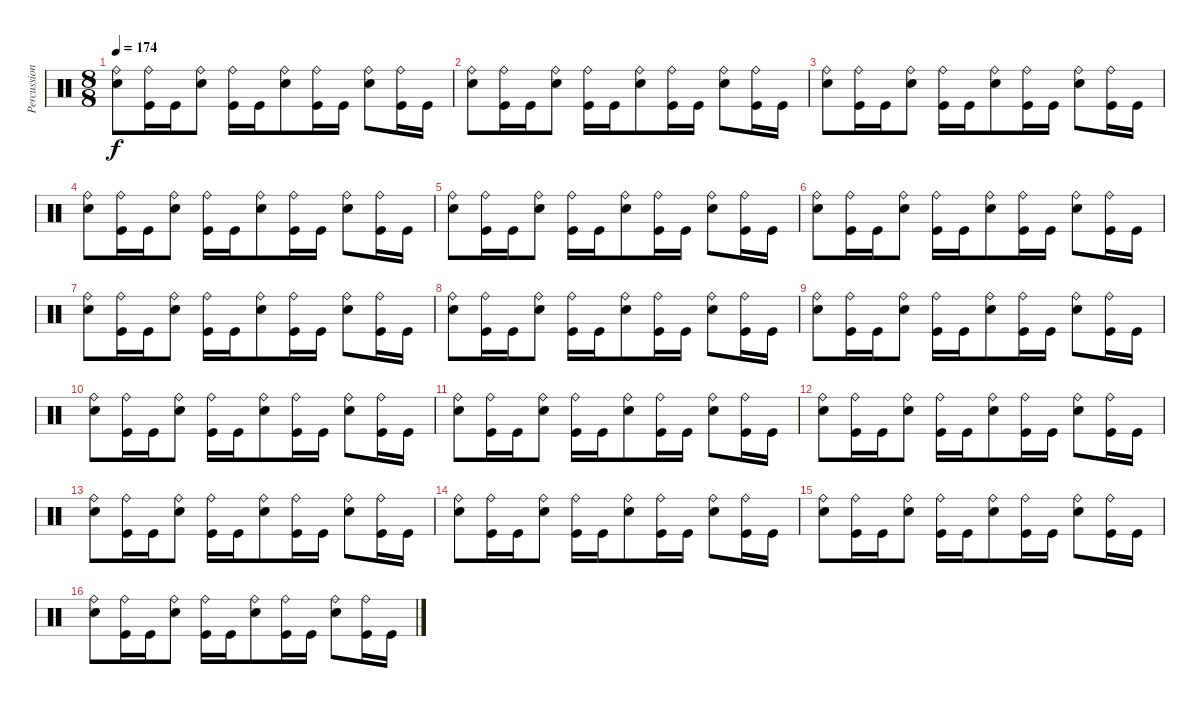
\track ("Percussions" "Percussion") {instrument percussion}
\staff {score}
\articulation defaults
\ts (8 8)
\tempo 174
\clef neutral
\ks c
("Electric Snare (hit)" "Ride (bell)").8{dy f} ("Kick (hit)" "Ride (bell)").16 "Kick (hit)".16 ("Electric Snare (hit)" "Ride (bell)").8 ("Kick (hit)" "Ride (bell)").16 "Kick (hit)".16 ("Electric Snare (hit)" "Ride (bell)").8 ("Kick (hit)" "Ride (bell)").16 "Kick (hit)".16 ("Electric Snare (hit)" "Ride (bell)").8 ("Kick (hit)" "Ride (bell)").16 "Kick (hit)".16 |
("Electric Snare (hit)" "Ride (bell)").8 ("Kick (hit)" "Ride (bell)").16 "Kick (hit)".16 ("Electric Snare (hit)" "Ride (bell)").8 ("Kick (hit)" "Ride (bell)").16 "Kick (hit)".16 ("Electric Snare (hit)" "Ride (bell)").8 ("Kick (hit)" "Ride (bell)").16 "Kick (hit)".16 ("Electric Snare (hit)" "Ride (bell)").8 ("Kick (hit)" "Ride (bell)").16 "Kick (hit)".16 |
("Electric Snare (hit)" "Ride (bell)").8 ("Kick (hit)" "Ride (bell)").16 "Kick (hit)".16 ("Electric Snare (hit)" "Ride (bell)").8 ("Kick (hit)" "Ride (bell)").16 "Kick (hit)".16 ("Electric Snare (hit)" "Ride (bell)").8 ("Kick (hit)" "Ride (bell)").16 "Kick (hit)".16 ("Electric Snare (hit)" "Ride (bell)").8 ("Kick (hit)" "Ride (bell)").16 "Kick (hit)".16 |
("Electric Snare (hit)" "Ride (bell)").8 ("Kick (hit)" "Ride (bell)").16 "Kick (hit)".16 ("Electric Snare (hit)" "Ride (bell)").8 ("Kick (hit)" "Ride (bell)").16 "Kick (hit)".16 ("Electric Snare (hit)" "Ride (bell)").8 ("Kick (hit)" "Ride (bell)").16 "Kick (hit)".16 ("Electric Snare (hit)" "Ride (bell)").8 ("Kick (hit)" "Ride (bell)").16 "Kick (hit)".16 |
("Electric Snare (hit)" "Ride (bell)").8 ("Kick (hit)" "Ride (bell)").16 "Kick (hit)".16 ("Electric Snare (hit)" "Ride (bell)").8 ("Kick (hit)" "Ride (bell)").16 "Kick (hit)".16 ("Electric Snare (hit)" "Ride (bell)").8 ("Kick (hit)" "Ride (bell)").16 "Kick (hit)".16 ("Electric Snare (hit)" "Ride (bell)").8 ("Kick (hit)" "Ride (bell)").16 "Kick (hit)".16 |
("Electric Snare (hit)" "Ride (bell)").8 ("Kick (hit)" "Ride (bell)").16 "Kick (hit)".16 ("Electric Snare (hit)" "Ride (bell)").8 ("Kick (hit)" "Ride (bell)").16 "Kick (hit)".16 ("Electric Snare (hit)" "Ride (bell)").8 ("Kick (hit)" "Ride (bell)").16 "Kick (hit)".16 ("Electric Snare (hit)" "Ride (bell)").8 ("Kick (hit)" "Ride (bell)").16 "Kick (hit)".16 |
("Electric Snare (hit)" "Ride (bell)").8 ("Kick (hit)" "Ride (bell)").16 "Kick (hit)".16 ("Electric Snare (hit)" "Ride (bell)").8 ("Kick (hit)" "Ride (bell)").16 "Kick (hit)".16 ("Electric Snare (hit)" "Ride (bell)").8 ("Kick (hit)" "Ride (bell)").16 "Kick (hit)".16 ("Electric Snare (hit)" "Ride (bell)").8 ("Kick (hit)" "Ride (bell)").16 "Kick (hit)".16 |
("Electric Snare (hit)" "Ride (bell)").8 ("Kick (hit)" "Ride (bell)").16 "Kick (hit)".16 ("Electric Snare (hit)" "Ride (bell)").8 ("Kick (hit)" "Ride (bell)").16 "Kick (hit)".16 ("Electric Snare (hit)" "Ride (bell)").8 ("Kick (hit)" "Ride (bell)").16 "Kick (hit)".16 ("Electric Snare (hit)" "Ride (bell)").8 ("Kick (hit)" "Ride (bell)").16 "Kick (hit)".16 |
("Electric Snare (hit)" "Ride (bell)").8 ("Kick (hit)" "Ride (bell)").16 "Kick (hit)".16 ("Electric Snare (hit)" "Ride (bell)").8 ("Kick (hit)" "Ride (bell)").16 "Kick (hit)".16 ("Electric Snare (hit)" "Ride (bell)").8 ("Kick (hit)" "Ride (bell)").16 "Kick (hit)".16 ("Electric Snare (hit)" "Ride (bell)").8 ("Kick (hit)" "Ride (bell)").16 "Kick (hit)".16 |
("Electric Snare (hit)" "Ride (bell)").8 ("Kick (hit)" "Ride (bell)").16 "Kick (hit)".16 ("Electric Snare (hit)" "Ride (bell)").8 ("Kick (hit)" "Ride (bell)").16 "Kick (hit)".16 ("Electric Snare (hit)" "Ride (bell)").8 ("Kick (hit)" "Ride (bell)").16 "Kick (hit)".16 ("Electric Snare (hit)" "Ride (bell)").8 ("Kick (hit)" "Ride (bell)").16 "Kick (hit)".16 |
("Electric Snare (hit)" "Ride (bell)").8 ("Kick (hit)" "Ride (bell)").16 "Kick (hit)".16 ("Electric Snare (hit)" "Ride (bell)").8 ("Kick (hit)" "Ride (bell)").16 "Kick (hit)".16 ("Electric Snare (hit)" "Ride (bell)").8 ("Kick (hit)" "Ride (bell)").16 "Kick (hit)".16 ("Electric Snare (hit)" "Ride (bell)").8 ("Kick (hit)" "Ride (bell)").16 "Kick (hit)".16 |
("Electric Snare (hit)" "Ride (bell)").8 ("Kick (hit)" "Ride (bell)").16 "Kick (hit)".16 ("Electric Snare (hit)" "Ride (bell)").8 ("Kick (hit)" "Ride (bell)").16 "Kick (hit)".16 ("Electric Snare (hit)" "Ride (bell)").8 ("Kick (hit)" "Ride (bell)").16 "Kick (hit)".16 ("Electric Snare (hit)" "Ride (bell)").8 ("Kick (hit)" "Ride (bell)").16 "Kick (hit)".16 |
("Electric Snare (hit)" "Ride (bell)").8 ("Kick (hit)" "Ride (bell)").16 "Kick (hit)".16 ("Electric Snare (hit)" "Ride (bell)").8 ("Kick (hit)" "Ride (bell)").16 "Kick (hit)".16 ("Electric Snare (hit)" "Ride (bell)").8 ("Kick (hit)" "Ride (bell)").16 "Kick (hit)".16 ("Electric Snare (hit)" "Ride (bell)").8 ("Kick (hit)" "Ride (bell)").16 "Kick (hit)".16 |
("Electric Snare (hit)" "Ride (bell)").8 ("Kick (hit)" "Ride (bell)").16 "Kick (hit)".16 ("Electric Snare (hit)" "Ride (bell)").8 ("Kick (hit)" "Ride (bell)").16 "Kick (hit)".16 ("Electric Snare (hit)" "Ride (bell)").8 ("Kick (hit)" "Ride (bell)").16 "Kick (hit)".16 ("Electric Snare (hit)" "Ride (bell)").8 ("Kick (hit)" "Ride (bell)").16 "Kick (hit)".16 |
("Electric Snare (hit)" "Ride (bell)").8 ("Kick (hit)" "Ride (bell)").16 "Kick (hit)".16 ("Electric Snare (hit)" "Ride (bell)").8 ("Kick (hit)" "Ride (bell)").16 "Kick (hit)".16 ("Electric Snare (hit)" "Ride (bell)").8 ("Kick (hit)" "Ride (bell)").16 "Kick (hit)".16 ("Electric Snare (hit)" "Ride (bell)").8 ("Kick (hit)" "Ride (bell)").16 "Kick (hit)".16 |
("Electric Snare (hit)" "Ride (bell)").8 ("Kick (hit)" "Ride (bell)").16 "Kick (hit)".16 ("Electric Snare (hit)" "Ride (bell)").8 ("Kick (hit)" "Ride (bell)").16 "Kick (hit)".16 ("Electric Snare (hit)" "Ride (bell)").8 ("Kick (hit)" "Ride (bell)").16 "Kick (hit)".16 ("Electric Snare (hit)" "Ride (bell)").8 ("Kick (hit)" "Ride (bell)").16 "Kick (hit)".16
